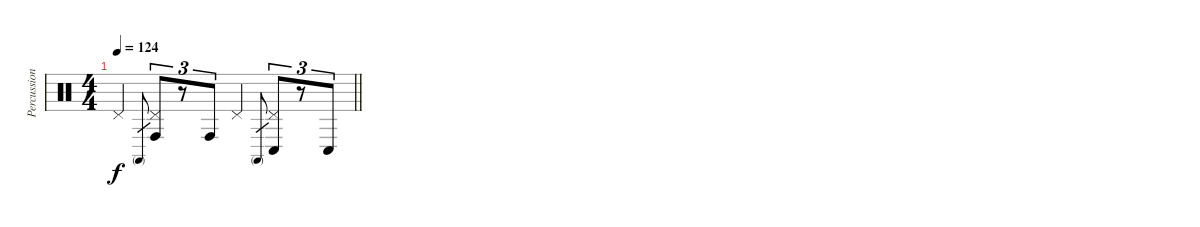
\track ("Percussions" "Percussion") {instrument percussion}
\staff {score}
\articulation defaults
\ts (4 4)
\tempo 124
\clef neutral
\barLineRight lightlight
\ks c "Pedal Hi-Hat (hit)".4{dy f} "Conga high (mute)".8{gr}
("Pedal Hi-Hat (hit)" "Conga high (hit)").8{tu (3 2)} r.8{tu (3 2)} "Conga high (hit)".8{tu (3 2)} "Pedal Hi-Hat (hit)".4 "Conga high (mute)".8{gr} ("Pedal Hi-Hat (hit)" "Conga low (hit)").8{tu (3 2)} r.8{tu (3 2)} "Conga low (hit)".8{tu (3 2)}
